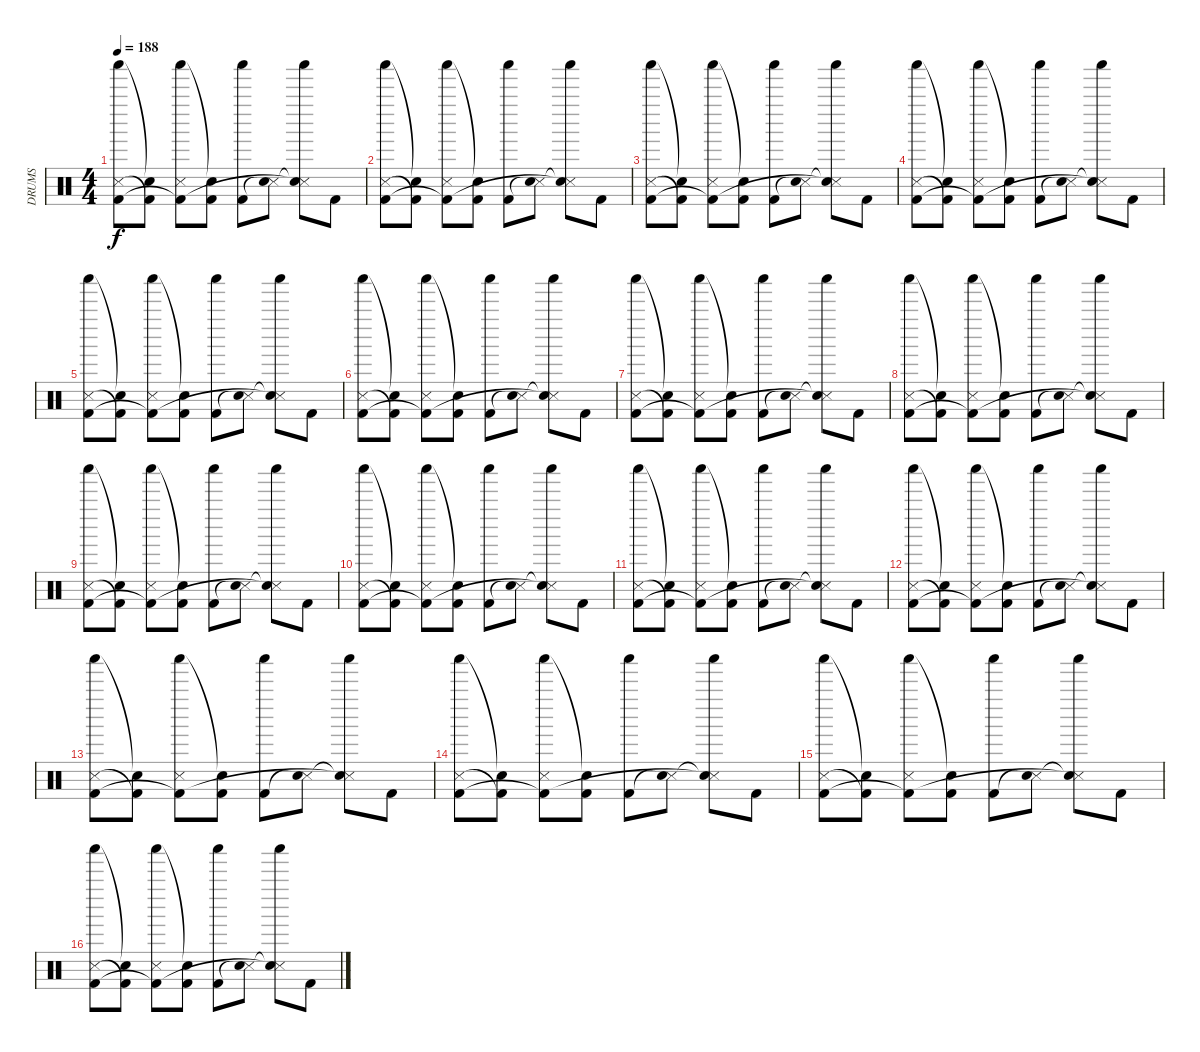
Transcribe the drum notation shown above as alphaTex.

\track ("DRUMS" "DRUMS") {instrument percussion}
\staff {score}
\articulation defaults
\ts (4 4)
\tempo 188
\clef neutral
\ks c
("Shaker (hit)" "Snare (side stick) 3" "Kick (hit) 2").8{dy f} ("Snare (hit)"{t} "Kick (hit) 2"{t}).8 ("Shaker (hit)" "Snare (side stick) 3" "Kick (hit) 2"{t}).8 ("Snare (hit)"{t} "Kick (hit) 2").8 ("Shaker (hit)" "Kick (hit) 2").8 ("Snare (side stick) 3" "Snare (hit)"{t}).8 ("Shaker (hit)" "Snare (side stick) 3"{t} "Snare (hit)"{t}).8 "Kick (hit) 2".8 |
("Shaker (hit)" "Snare (side stick) 3" "Kick (hit) 2").8 ("Snare (hit)"{t} "Kick (hit) 2"{t}).8 ("Shaker (hit)" "Snare (side stick) 3" "Kick (hit) 2"{t}).8 ("Snare (hit)"{t} "Kick (hit) 2").8 ("Shaker (hit)" "Kick (hit) 2").8 ("Snare (side stick) 3" "Snare (hit)"{t}).8 ("Shaker (hit)" "Snare (side stick) 3"{t} "Snare (hit)"{t}).8 "Kick (hit) 2".8 |
("Shaker (hit)" "Snare (side stick) 3" "Kick (hit) 2").8 ("Snare (hit)"{t} "Kick (hit) 2"{t}).8 ("Shaker (hit)" "Snare (side stick) 3" "Kick (hit) 2"{t}).8 ("Snare (hit)"{t} "Kick (hit) 2").8 ("Shaker (hit)" "Kick (hit) 2").8 ("Snare (side stick) 3" "Snare (hit)"{t}).8 ("Shaker (hit)" "Snare (side stick) 3"{t} "Snare (hit)"{t}).8 "Kick (hit) 2".8 |
("Shaker (hit)" "Snare (side stick) 3" "Kick (hit) 2").8 ("Snare (hit)"{t} "Kick (hit) 2"{t}).8 ("Shaker (hit)" "Snare (side stick) 3" "Kick (hit) 2"{t}).8 ("Snare (hit)"{t} "Kick (hit) 2").8 ("Shaker (hit)" "Kick (hit) 2").8 ("Snare (side stick) 3" "Snare (hit)"{t}).8 ("Shaker (hit)" "Snare (side stick) 3"{t} "Snare (hit)"{t}).8 "Kick (hit) 2".8 |
("Shaker (hit)" "Snare (side stick) 3" "Kick (hit) 2").8 ("Snare (hit)"{t} "Kick (hit) 2"{t}).8 ("Shaker (hit)" "Snare (side stick) 3" "Kick (hit) 2"{t}).8 ("Snare (hit)"{t} "Kick (hit) 2").8 ("Shaker (hit)" "Kick (hit) 2").8 ("Snare (side stick) 3" "Snare (hit)"{t}).8 ("Shaker (hit)" "Snare (side stick) 3"{t} "Snare (hit)"{t}).8 "Kick (hit) 2".8 |
("Shaker (hit)" "Snare (side stick) 3" "Kick (hit) 2").8 ("Snare (hit)"{t} "Kick (hit) 2"{t}).8 ("Shaker (hit)" "Snare (side stick) 3" "Kick (hit) 2"{t}).8 ("Snare (hit)"{t} "Kick (hit) 2").8 ("Shaker (hit)" "Kick (hit) 2").8 ("Snare (side stick) 3" "Snare (hit)"{t}).8 ("Shaker (hit)" "Snare (side stick) 3"{t} "Snare (hit)"{t}).8 "Kick (hit) 2".8 |
("Shaker (hit)" "Snare (side stick) 3" "Kick (hit) 2").8 ("Snare (hit)"{t} "Kick (hit) 2"{t}).8 ("Shaker (hit)" "Snare (side stick) 3" "Kick (hit) 2"{t}).8 ("Snare (hit)"{t} "Kick (hit) 2").8 ("Shaker (hit)" "Kick (hit) 2").8 ("Snare (side stick) 3" "Snare (hit)"{t}).8 ("Shaker (hit)" "Snare (side stick) 3"{t} "Snare (hit)"{t}).8 "Kick (hit) 2".8 |
("Shaker (hit)" "Snare (side stick) 3" "Kick (hit) 2").8 ("Snare (hit)"{t} "Kick (hit) 2"{t}).8 ("Shaker (hit)" "Snare (side stick) 3" "Kick (hit) 2"{t}).8 ("Snare (hit)"{t} "Kick (hit) 2").8 ("Shaker (hit)" "Kick (hit) 2").8 ("Snare (side stick) 3" "Snare (hit)"{t}).8 ("Shaker (hit)" "Snare (side stick) 3"{t} "Snare (hit)"{t}).8 "Kick (hit) 2".8 |
("Shaker (hit)" "Snare (side stick) 3" "Kick (hit) 2").8 ("Snare (hit)"{t} "Kick (hit) 2"{t}).8 ("Shaker (hit)" "Snare (side stick) 3" "Kick (hit) 2"{t}).8 ("Snare (hit)"{t} "Kick (hit) 2").8 ("Shaker (hit)" "Kick (hit) 2").8 ("Snare (side stick) 3" "Snare (hit)"{t}).8 ("Shaker (hit)" "Snare (side stick) 3"{t} "Snare (hit)"{t}).8 "Kick (hit) 2".8 |
("Shaker (hit)" "Snare (side stick) 3" "Kick (hit) 2").8 ("Snare (hit)"{t} "Kick (hit) 2"{t}).8 ("Shaker (hit)" "Snare (side stick) 3" "Kick (hit) 2"{t}).8 ("Snare (hit)"{t} "Kick (hit) 2").8 ("Shaker (hit)" "Kick (hit) 2").8 ("Snare (side stick) 3" "Snare (hit)"{t}).8 ("Shaker (hit)" "Snare (side stick) 3"{t} "Snare (hit)"{t}).8 "Kick (hit) 2".8 |
("Shaker (hit)" "Snare (side stick) 3" "Kick (hit) 2").8 ("Snare (hit)"{t} "Kick (hit) 2"{t}).8 ("Shaker (hit)" "Snare (side stick) 3" "Kick (hit) 2"{t}).8 ("Snare (hit)"{t} "Kick (hit) 2").8 ("Shaker (hit)" "Kick (hit) 2").8 ("Snare (side stick) 3" "Snare (hit)"{t}).8 ("Shaker (hit)" "Snare (side stick) 3"{t} "Snare (hit)"{t}).8 "Kick (hit) 2".8 |
("Shaker (hit)" "Snare (side stick) 3" "Kick (hit) 2").8 ("Snare (hit)"{t} "Kick (hit) 2"{t}).8 ("Shaker (hit)" "Snare (side stick) 3" "Kick (hit) 2"{t}).8 ("Snare (hit)"{t} "Kick (hit) 2").8 ("Shaker (hit)" "Kick (hit) 2").8 ("Snare (side stick) 3" "Snare (hit)"{t}).8 ("Shaker (hit)" "Snare (side stick) 3"{t} "Snare (hit)"{t}).8 "Kick (hit) 2".8 |
("Shaker (hit)" "Snare (side stick) 3" "Kick (hit) 2").8 ("Snare (hit)"{t} "Kick (hit) 2"{t}).8 ("Shaker (hit)" "Snare (side stick) 3" "Kick (hit) 2"{t}).8 ("Snare (hit)"{t} "Kick (hit) 2").8 ("Shaker (hit)" "Kick (hit) 2").8 ("Snare (side stick) 3" "Snare (hit)"{t}).8 ("Shaker (hit)" "Snare (side stick) 3"{t} "Snare (hit)"{t}).8 "Kick (hit) 2".8 |
("Shaker (hit)" "Snare (side stick) 3" "Kick (hit) 2").8 ("Snare (hit)"{t} "Kick (hit) 2"{t}).8 ("Shaker (hit)" "Snare (side stick) 3" "Kick (hit) 2"{t}).8 ("Snare (hit)"{t} "Kick (hit) 2").8 ("Shaker (hit)" "Kick (hit) 2").8 ("Snare (side stick) 3" "Snare (hit)"{t}).8 ("Shaker (hit)" "Snare (side stick) 3"{t} "Snare (hit)"{t}).8 "Kick (hit) 2".8 |
("Shaker (hit)" "Snare (side stick) 3" "Kick (hit) 2").8 ("Snare (hit)"{t} "Kick (hit) 2"{t}).8 ("Shaker (hit)" "Snare (side stick) 3" "Kick (hit) 2"{t}).8 ("Snare (hit)"{t} "Kick (hit) 2").8 ("Shaker (hit)" "Kick (hit) 2").8 ("Snare (side stick) 3" "Snare (hit)"{t}).8 ("Shaker (hit)" "Snare (side stick) 3"{t} "Snare (hit)"{t}).8 "Kick (hit) 2".8 |
("Shaker (hit)" "Snare (side stick) 3" "Kick (hit) 2").8 ("Snare (hit)"{t} "Kick (hit) 2"{t}).8 ("Shaker (hit)" "Snare (side stick) 3" "Kick (hit) 2"{t}).8 ("Snare (hit)"{t} "Kick (hit) 2").8 ("Shaker (hit)" "Kick (hit) 2").8 ("Snare (side stick) 3" "Snare (hit)"{t}).8 ("Shaker (hit)" "Snare (side stick) 3"{t} "Snare (hit)"{t}).8 "Kick (hit) 2".8
